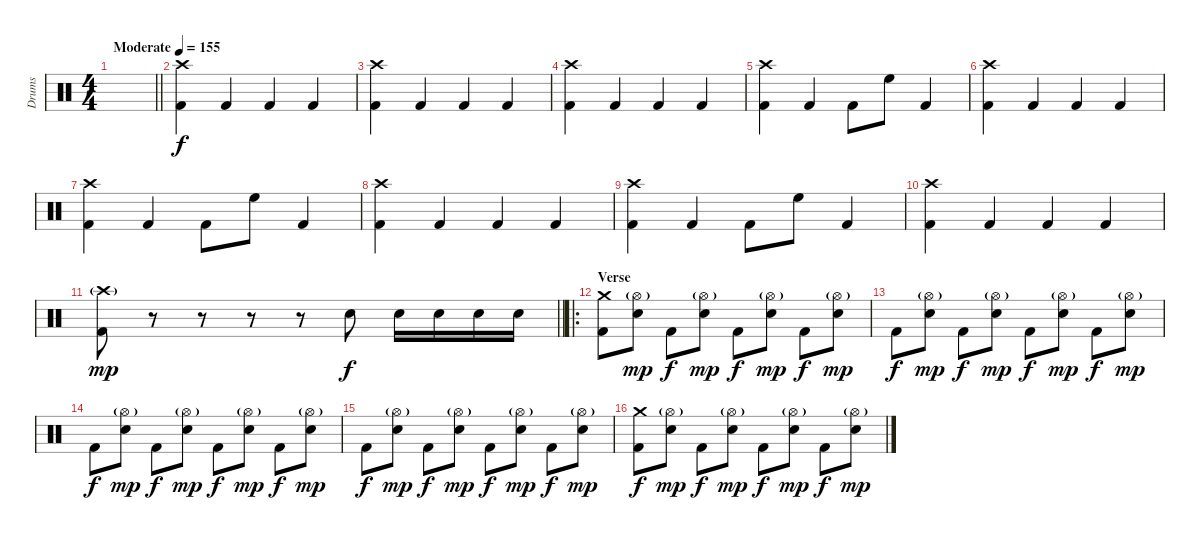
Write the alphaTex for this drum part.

\track ("Drums" "Drums") {instrument percussion}
\staff {score}
\articulation defaults
\ts (4 4)
\tempo (155 "Moderate")
\clef neutral
\barLineRight lightlight
\ks c
|
\section ("" "")
("Kick (hit) 2" "Crash high (hit)").4 "Kick (hit) 2".4 "Kick (hit) 2".4 "Kick (hit) 2".4 |
("Kick (hit) 2" "Crash high (hit)").4 "Kick (hit) 2".4 "Kick (hit) 2".4 "Kick (hit) 2".4 |
("Kick (hit) 2" "Crash high (hit)").4 "Kick (hit) 2".4 "Kick (hit) 2".4 "Kick (hit) 2".4 |
("Kick (hit) 2" "Crash high (hit)").4 "Kick (hit) 2".4 "Kick (hit) 2".8 "High Floor Tom (hit)".8 "Kick (hit) 2".4 |
("Kick (hit) 2" "Crash high (hit)").4 "Kick (hit) 2".4 "Kick (hit) 2".4 "Kick (hit) 2".4 |
("Kick (hit) 2" "Crash high (hit)").4 "Kick (hit) 2".4 "Kick (hit) 2".8 "High Floor Tom (hit)".8 "Kick (hit) 2".4 |
("Kick (hit) 2" "Crash high (hit)").4 "Kick (hit) 2".4 "Kick (hit) 2".4 "Kick (hit) 2".4 |
("Kick (hit) 2" "Crash high (hit)").4 "Kick (hit) 2".4 "Kick (hit) 2".8 "High Floor Tom (hit)".8 "Kick (hit) 2".4 |
("Kick (hit) 2" "Crash high (hit)").4 "Kick (hit) 2".4 "Kick (hit) 2".4 "Kick (hit) 2".4 |
\barLineRight lightlight
("Kick (hit) 2" "Crash high (hit)"{g}).8{dy mp} r.8 r.8 r.8 r.8 "Snare (hit) 2".8{dy f} "Snare (hit) 2".16 "Snare (hit) 2".16 "Snare (hit) 2".16 "Snare (hit) 2".16 |
\ro
\section ("" "Verse")
("Kick (hit) 2" "Crash medium (hit)").8 ("Snare (hit) 2" "Hi-Hat (open)"{g}).8{dy mp} "Kick (hit) 2".8{dy f} ("Snare (hit) 2" "Hi-Hat (open)"{g}).8{dy mp} "Kick (hit) 2".8{dy f} ("Snare (hit) 2" "Hi-Hat (open)"{g}).8{dy mp} "Kick (hit) 2".8{dy f} ("Snare (hit) 2" "Hi-Hat (open)"{g}).8{dy mp} |
"Kick (hit) 2".8{dy f} ("Snare (hit) 2" "Hi-Hat (open)"{g}).8{dy mp} "Kick (hit) 2".8{dy f} ("Snare (hit) 2" "Hi-Hat (open)"{g}).8{dy mp} "Kick (hit) 2".8{dy f} ("Snare (hit) 2" "Hi-Hat (open)"{g}).8{dy mp} "Kick (hit) 2".8{dy f} ("Snare (hit) 2" "Hi-Hat (open)"{g}).8{dy mp} |
"Kick (hit) 2".8{dy f} ("Snare (hit) 2" "Hi-Hat (open)"{g}).8{dy mp} "Kick (hit) 2".8{dy f} ("Snare (hit) 2" "Hi-Hat (open)"{g}).8{dy mp} "Kick (hit) 2".8{dy f} ("Snare (hit) 2" "Hi-Hat (open)"{g}).8{dy mp} "Kick (hit) 2".8{dy f} ("Snare (hit) 2" "Hi-Hat (open)"{g}).8{dy mp} |
"Kick (hit) 2".8{dy f} ("Snare (hit) 2" "Hi-Hat (open)"{g}).8{dy mp} "Kick (hit) 2".8{dy f} ("Snare (hit) 2" "Hi-Hat (open)"{g}).8{dy mp} "Kick (hit) 2".8{dy f} ("Snare (hit) 2" "Hi-Hat (open)"{g}).8{dy mp} "Kick (hit) 2".8{dy f} ("Snare (hit) 2" "Hi-Hat (open)"{g}).8{dy mp} |
("Kick (hit) 2" "Crash medium (hit)").8{dy f} ("Snare (hit) 2" "Hi-Hat (open)"{g}).8{dy mp} "Kick (hit) 2".8{dy f} ("Snare (hit) 2" "Hi-Hat (open)"{g}).8{dy mp} "Kick (hit) 2".8{dy f} ("Snare (hit) 2" "Hi-Hat (open)"{g}).8{dy mp} "Kick (hit) 2".8{dy f} ("Snare (hit) 2" "Hi-Hat (open)"{g}).8{dy mp}
